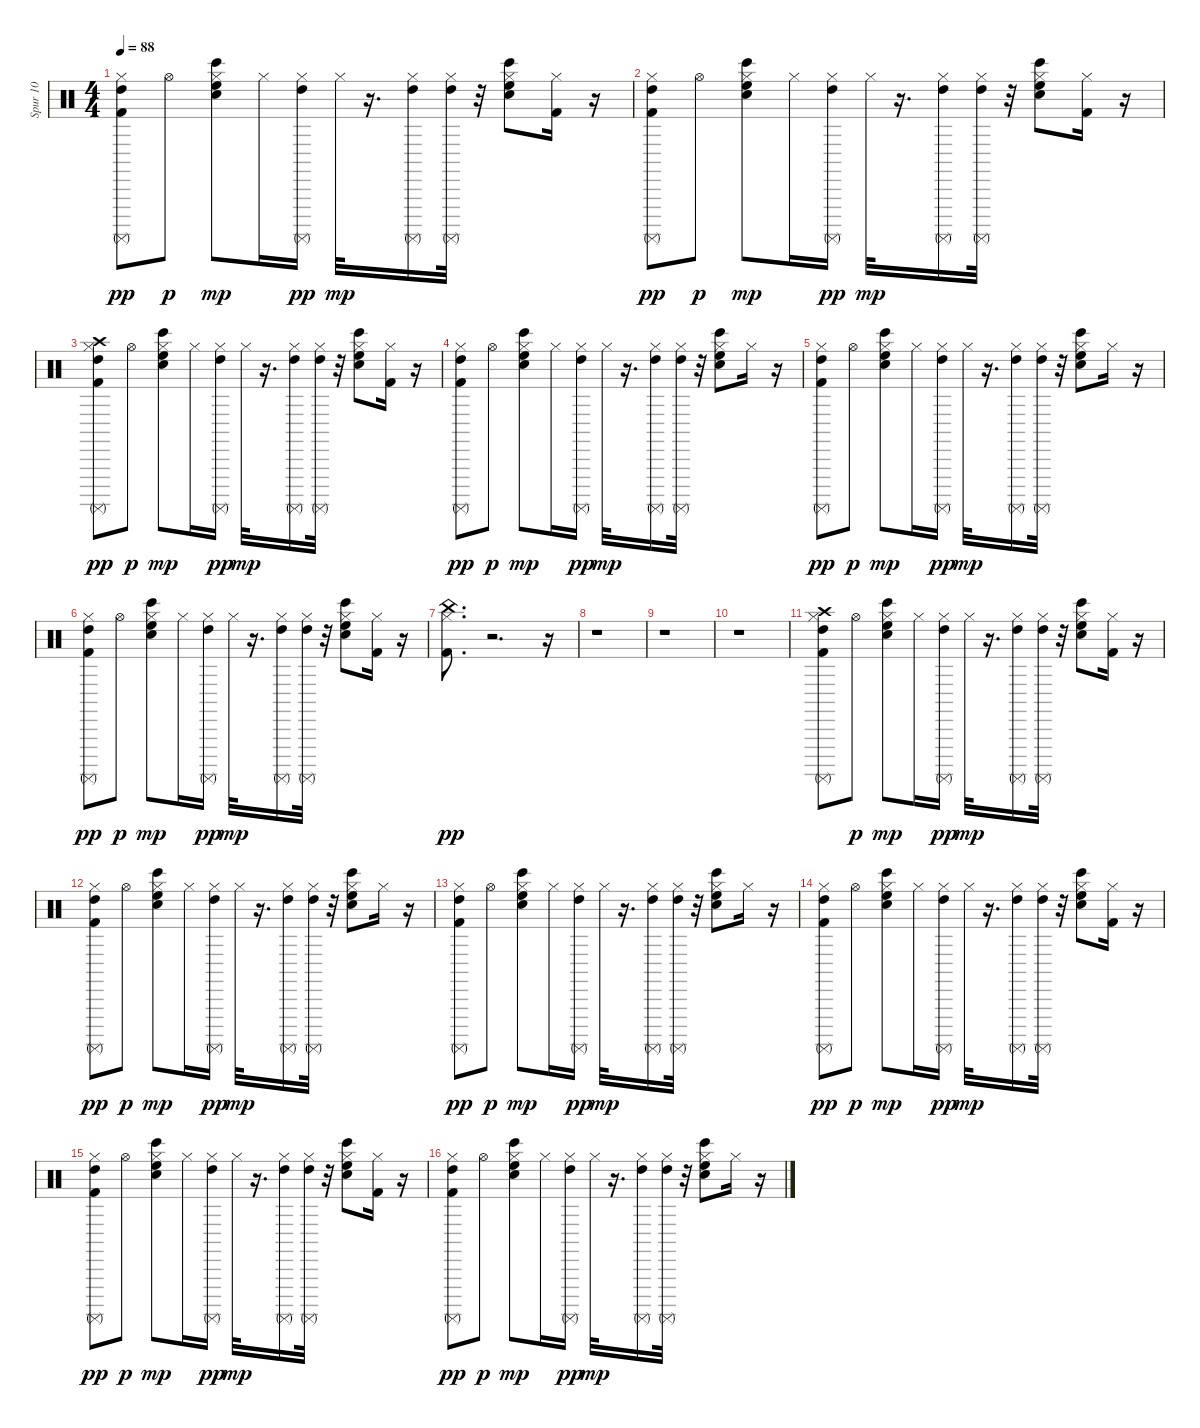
\track ("Spur 10" "Spur 10") {instrument percussion}
\staff {score}
\articulation defaults
\ts (4 4)
\tempo 88
\clef neutral
\ks c
("Kick (hit) 2" "High Tom (hit)" "Surdo (mute)" "Hi-Hat (closed)").8{dy pp} "Hi-Hat (open)".8{dy p} ("Bongo High (hit)" "Hand Clap (hit)" "High Floor Tom (hit)" "Hi-Hat (closed)").8{dy mp} "Hi-Hat (closed)".16 ("High Tom (hit)" "Surdo (mute)" "Hi-Hat (closed)").16{dy pp} "Hi-Hat (closed)".32{dy mp} r.16{d} ("High Tom (hit)" "Surdo (mute)" "Hi-Hat (closed)").16 ("Hi-Hat (closed)" "High Tom (hit)" "Surdo (mute)").32 r.32 ("Bongo High (hit)" "Hand Clap (hit)" "High Floor Tom (hit)" "Hi-Hat (closed)").8 ("Kick (hit) 2" "Hi-Hat (closed)").16 r.16 |
("Kick (hit) 2" "High Tom (hit)" "Surdo (mute)" "Hi-Hat (closed)").8{dy pp} "Hi-Hat (open)".8{dy p} ("Bongo High (hit)" "Hand Clap (hit)" "High Floor Tom (hit)" "Hi-Hat (closed)").8{dy mp} "Hi-Hat (closed)".16 ("High Tom (hit)" "Surdo (mute)" "Hi-Hat (closed)").16{dy pp} "Hi-Hat (closed)".32{dy mp} r.16{d} ("High Tom (hit)" "Surdo (mute)" "Hi-Hat (closed)").16 ("Hi-Hat (closed)" "High Tom (hit)" "Surdo (mute)").32 r.32 ("Bongo High (hit)" "Hand Clap (hit)" "High Floor Tom (hit)" "Hi-Hat (closed)").8 ("Kick (hit) 2" "Hi-Hat (closed)").16 r.16 |
("Kick (hit) 2" "High Tom (hit)" "Crash high (hit)" "Surdo (mute)" "Hi-Hat (closed)").8{dy pp} "Hi-Hat (open)".8{dy p} ("Bongo High (hit)" "Hand Clap (hit)" "High Floor Tom (hit)" "Hi-Hat (closed)").8{dy mp} "Hi-Hat (closed)".16 ("High Tom (hit)" "Surdo (mute)" "Hi-Hat (closed)").16{dy pp} "Hi-Hat (closed)".32{dy mp} r.16{d} ("High Tom (hit)" "Surdo (mute)" "Hi-Hat (closed)").16 ("Hi-Hat (closed)" "High Tom (hit)" "Surdo (mute)").32 r.32 ("Bongo High (hit)" "Hand Clap (hit)" "High Floor Tom (hit)" "Hi-Hat (closed)").8 ("Kick (hit) 2" "Hi-Hat (closed)").16 r.16 |
("Kick (hit) 2" "High Tom (hit)" "Surdo (mute)" "Hi-Hat (closed)").8{dy pp} "Hi-Hat (open)".8{dy p} ("Bongo High (hit)" "Hand Clap (hit)" "High Floor Tom (hit)" "Hi-Hat (closed)").8{dy mp} "Hi-Hat (closed)".16 ("High Tom (hit)" "Surdo (mute)" "Hi-Hat (closed)").16{dy pp} "Hi-Hat (closed)".32{dy mp} r.16{d} ("High Tom (hit)" "Surdo (mute)" "Hi-Hat (closed)").16 ("Hi-Hat (closed)" "High Tom (hit)" "Surdo (mute)").32 r.32 ("Bongo High (hit)" "Hand Clap (hit)" "High Floor Tom (hit)" "Hi-Hat (closed)").8 "Hi-Hat (closed)".16 r.16 |
("Kick (hit) 2" "High Tom (hit)" "Surdo (mute)" "Hi-Hat (closed)").8{dy pp} "Hi-Hat (open)".8{dy p} ("Bongo High (hit)" "Hand Clap (hit)" "High Floor Tom (hit)" "Hi-Hat (closed)").8{dy mp} "Hi-Hat (closed)".16 ("High Tom (hit)" "Surdo (mute)" "Hi-Hat (closed)").16{dy pp} "Hi-Hat (closed)".32{dy mp} r.16{d} ("High Tom (hit)" "Surdo (mute)" "Hi-Hat (closed)").16 ("Hi-Hat (closed)" "High Tom (hit)" "Surdo (mute)").32 r.32 ("Bongo High (hit)" "Hand Clap (hit)" "High Floor Tom (hit)" "Hi-Hat (closed)").8 "Hi-Hat (closed)".16 r.16 |
("Kick (hit) 2" "High Tom (hit)" "Surdo (mute)" "Hi-Hat (closed)").8{dy pp} "Hi-Hat (open)".8{dy p} ("Bongo High (hit)" "Hand Clap (hit)" "High Floor Tom (hit)" "Hi-Hat (closed)").8{dy mp} "Hi-Hat (closed)".16 ("High Tom (hit)" "Surdo (mute)" "Hi-Hat (closed)").16{dy pp} "Hi-Hat (closed)".32{dy mp} r.16{d} ("High Tom (hit)" "Surdo (mute)" "Hi-Hat (closed)").16 ("Hi-Hat (closed)" "High Tom (hit)" "Surdo (mute)").32 r.32 ("Bongo High (hit)" "Hand Clap (hit)" "High Floor Tom (hit)" "Hi-Hat (closed)").8 ("Kick (hit) 2" "Hi-Hat (closed)").16 r.16 |
("Kick (hit) 2" "China (hit)" "Hi-Hat (closed)").8{d dy pp} r.2{d} r.16 |
r.1 |
r.1 |
r.1 |
("Kick (hit) 2" "High Tom (hit)" "Crash high (hit)" "Surdo (mute)" "Hi-Hat (closed)").8 "Hi-Hat (open)".8{dy p} ("Bongo High (hit)" "Hand Clap (hit)" "High Floor Tom (hit)" "Hi-Hat (closed)").8{dy mp} "Hi-Hat (closed)".16 ("High Tom (hit)" "Surdo (mute)" "Hi-Hat (closed)").16{dy pp} "Hi-Hat (closed)".32{dy mp} r.16{d} ("High Tom (hit)" "Surdo (mute)" "Hi-Hat (closed)").16 ("Hi-Hat (closed)" "High Tom (hit)" "Surdo (mute)").32 r.32 ("Bongo High (hit)" "Hand Clap (hit)" "High Floor Tom (hit)" "Hi-Hat (closed)").8 ("Kick (hit) 2" "Hi-Hat (closed)").16 r.16 |
("Kick (hit) 2" "High Tom (hit)" "Surdo (mute)" "Hi-Hat (closed)").8{dy pp} "Hi-Hat (open)".8{dy p} ("Bongo High (hit)" "Hand Clap (hit)" "High Floor Tom (hit)" "Hi-Hat (closed)").8{dy mp} "Hi-Hat (closed)".16 ("High Tom (hit)" "Surdo (mute)" "Hi-Hat (closed)").16{dy pp} "Hi-Hat (closed)".32{dy mp} r.16{d} ("High Tom (hit)" "Surdo (mute)" "Hi-Hat (closed)").16 ("Hi-Hat (closed)" "High Tom (hit)" "Surdo (mute)").32 r.32 ("Bongo High (hit)" "Hand Clap (hit)" "High Floor Tom (hit)" "Hi-Hat (closed)").8 "Hi-Hat (closed)".16 r.16 |
("Kick (hit) 2" "High Tom (hit)" "Surdo (mute)" "Hi-Hat (closed)").8{dy pp} "Hi-Hat (open)".8{dy p} ("Bongo High (hit)" "Hand Clap (hit)" "High Floor Tom (hit)" "Hi-Hat (closed)").8{dy mp} "Hi-Hat (closed)".16 ("High Tom (hit)" "Surdo (mute)" "Hi-Hat (closed)").16{dy pp} "Hi-Hat (closed)".32{dy mp} r.16{d} ("High Tom (hit)" "Surdo (mute)" "Hi-Hat (closed)").16 ("Hi-Hat (closed)" "High Tom (hit)" "Surdo (mute)").32 r.32 ("Bongo High (hit)" "Hand Clap (hit)" "High Floor Tom (hit)" "Hi-Hat (closed)").8 "Hi-Hat (closed)".16 r.16 |
("Kick (hit) 2" "High Tom (hit)" "Surdo (mute)" "Hi-Hat (closed)").8{dy pp} "Hi-Hat (open)".8{dy p} ("Bongo High (hit)" "Hand Clap (hit)" "High Floor Tom (hit)" "Hi-Hat (closed)").8{dy mp} "Hi-Hat (closed)".16 ("High Tom (hit)" "Surdo (mute)" "Hi-Hat (closed)").16{dy pp} "Hi-Hat (closed)".32{dy mp} r.16{d} ("High Tom (hit)" "Surdo (mute)" "Hi-Hat (closed)").16 ("Hi-Hat (closed)" "High Tom (hit)" "Surdo (mute)").32 r.32 ("Bongo High (hit)" "Hand Clap (hit)" "High Floor Tom (hit)" "Hi-Hat (closed)").8 ("Kick (hit) 2" "Hi-Hat (closed)").16 r.16 |
("Kick (hit) 2" "High Tom (hit)" "Surdo (mute)" "Hi-Hat (closed)").8{dy pp} "Hi-Hat (open)".8{dy p} ("Bongo High (hit)" "Hand Clap (hit)" "High Floor Tom (hit)" "Hi-Hat (closed)").8{dy mp} "Hi-Hat (closed)".16 ("High Tom (hit)" "Surdo (mute)" "Hi-Hat (closed)").16{dy pp} "Hi-Hat (closed)".32{dy mp} r.16{d} ("High Tom (hit)" "Surdo (mute)" "Hi-Hat (closed)").16 ("Hi-Hat (closed)" "High Tom (hit)" "Surdo (mute)").32 r.32 ("Bongo High (hit)" "Hand Clap (hit)" "High Floor Tom (hit)" "Hi-Hat (closed)").8 ("Kick (hit) 2" "Hi-Hat (closed)").16 r.16 |
("Kick (hit) 2" "High Tom (hit)" "Surdo (mute)" "Hi-Hat (closed)").8{dy pp} "Hi-Hat (open)".8{dy p} ("Bongo High (hit)" "Hand Clap (hit)" "High Floor Tom (hit)" "Hi-Hat (closed)").8{dy mp} "Hi-Hat (closed)".16 ("High Tom (hit)" "Surdo (mute)" "Hi-Hat (closed)").16{dy pp} "Hi-Hat (closed)".32{dy mp} r.16{d} ("High Tom (hit)" "Surdo (mute)" "Hi-Hat (closed)").16 ("Hi-Hat (closed)" "High Tom (hit)" "Surdo (mute)").32 r.32 ("Bongo High (hit)" "Hand Clap (hit)" "High Floor Tom (hit)" "Hi-Hat (closed)").8 "Hi-Hat (closed)".16 r.16
